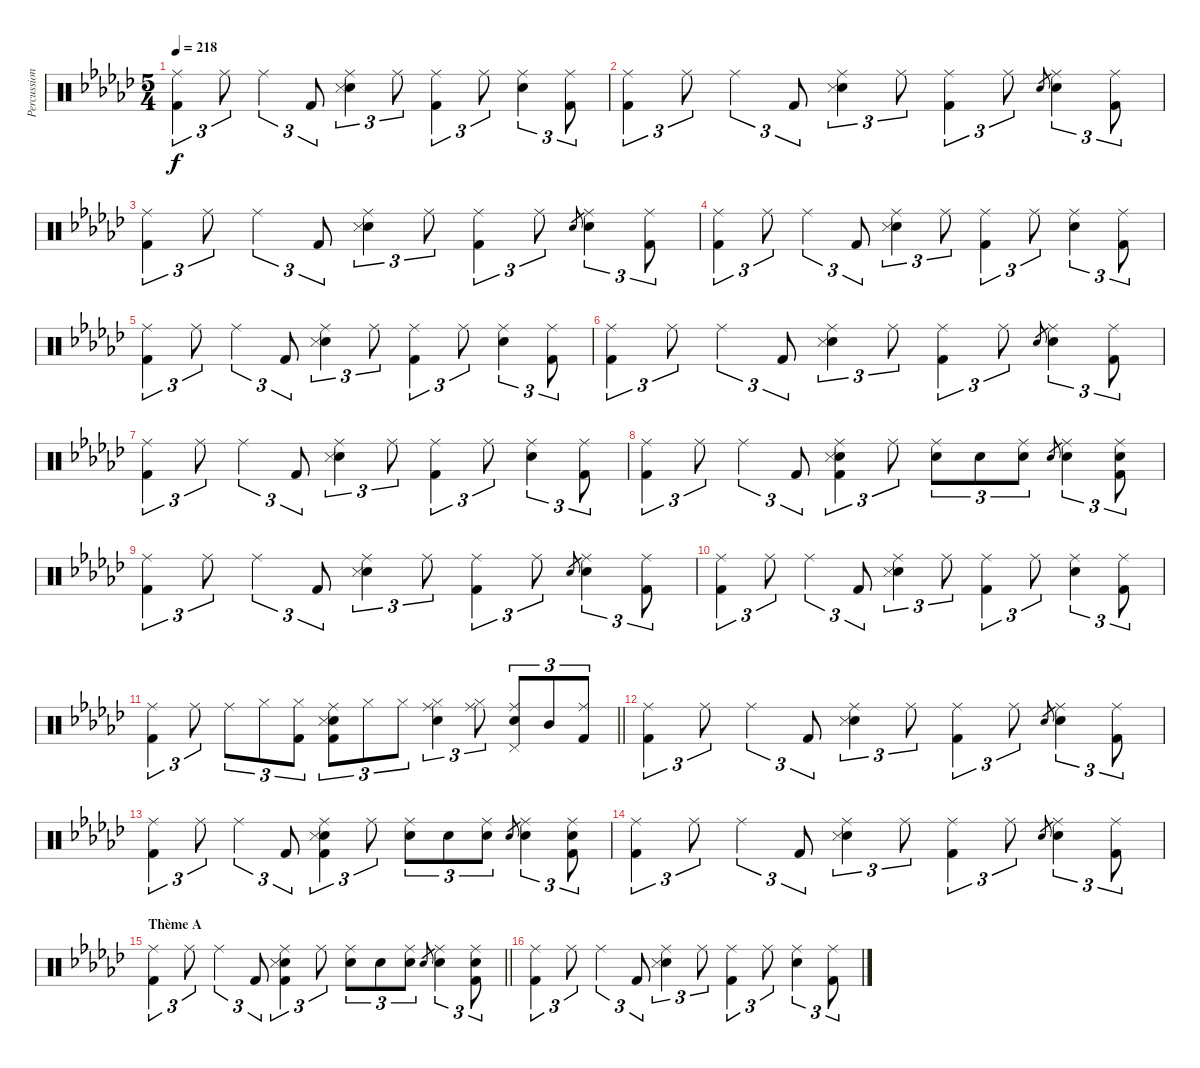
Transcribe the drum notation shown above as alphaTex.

\track ("Percussions" "Percussion") {instrument percussion}
\staff {score}
\articulation defaults
\ts (5 4)
\tempo 218
\clef neutral
\ks ebminor
("Ride (middle)" "Kick (hit) 2").4{tu (3 2) dy f} "Ride (middle)".8{tu (3 2)} "Ride (middle)".4{tu (3 2)} "Kick (hit) 2".8{tu (3 2)} ("Ride (middle)" "Snare (hit) 2" "Snare (side stick) 3").4{tu (3 2)} "Ride (middle)".8{tu (3 2)} ("Ride (middle)" "Kick (hit) 2").4{tu (3 2)} "Ride (middle)".8{tu (3 2)} ("Ride (middle)" "Snare (hit) 2").4{tu (3 2)} ("Ride (middle)" "Kick (hit) 2").8{tu (3 2)} |
("Ride (middle)" "Kick (hit) 2").4{tu (3 2)} "Ride (middle)".8{tu (3 2)} "Ride (middle)".4{tu (3 2)} "Kick (hit) 2".8{tu (3 2)} ("Ride (middle)" "Snare (hit) 2" "Snare (side stick) 3").4{tu (3 2)} "Ride (middle)".8{tu (3 2)} ("Ride (middle)" "Kick (hit) 2").4{tu (3 2)} "Ride (middle)".8{tu (3 2)} "Snare (hit) 2".8{gr} ("Ride (middle)" "Snare (hit) 2").4{tu (3 2)} ("Ride (middle)" "Kick (hit) 2").8{tu (3 2)} |
("Ride (middle)" "Kick (hit) 2").4{tu (3 2)} "Ride (middle)".8{tu (3 2)} "Ride (middle)".4{tu (3 2)} "Kick (hit) 2".8{tu (3 2)} ("Ride (middle)" "Snare (hit) 2" "Snare (side stick) 3").4{tu (3 2)} "Ride (middle)".8{tu (3 2)} ("Ride (middle)" "Kick (hit) 2").4{tu (3 2)} "Ride (middle)".8{tu (3 2)} "Snare (hit) 2".8{gr} ("Ride (middle)" "Snare (hit) 2").4{tu (3 2)} ("Ride (middle)" "Kick (hit) 2").8{tu (3 2)} |
("Ride (middle)" "Kick (hit) 2").4{tu (3 2)} "Ride (middle)".8{tu (3 2)} "Ride (middle)".4{tu (3 2)} "Kick (hit) 2".8{tu (3 2)} ("Ride (middle)" "Snare (hit) 2" "Snare (side stick) 3").4{tu (3 2)} "Ride (middle)".8{tu (3 2)} ("Ride (middle)" "Kick (hit) 2").4{tu (3 2)} "Ride (middle)".8{tu (3 2)} ("Ride (middle)" "Snare (hit) 2").4{tu (3 2)} ("Ride (middle)" "Kick (hit) 2").8{tu (3 2)} |
("Ride (middle)" "Kick (hit) 2").4{tu (3 2)} "Ride (middle)".8{tu (3 2)} "Ride (middle)".4{tu (3 2)} "Kick (hit) 2".8{tu (3 2)} ("Ride (middle)" "Snare (hit) 2" "Snare (side stick) 3").4{tu (3 2)} "Ride (middle)".8{tu (3 2)} ("Ride (middle)" "Kick (hit) 2").4{tu (3 2)} "Ride (middle)".8{tu (3 2)} ("Ride (middle)" "Snare (hit) 2").4{tu (3 2)} ("Ride (middle)" "Kick (hit) 2").8{tu (3 2)} |
("Ride (middle)" "Kick (hit) 2").4{tu (3 2)} "Ride (middle)".8{tu (3 2)} "Ride (middle)".4{tu (3 2)} "Kick (hit) 2".8{tu (3 2)} ("Ride (middle)" "Snare (hit) 2" "Snare (side stick) 3").4{tu (3 2)} "Ride (middle)".8{tu (3 2)} ("Ride (middle)" "Kick (hit) 2").4{tu (3 2)} "Ride (middle)".8{tu (3 2)} "Snare (hit) 2".8{gr} ("Ride (middle)" "Snare (hit) 2").4{tu (3 2)} ("Ride (middle)" "Kick (hit) 2").8{tu (3 2)} |
("Ride (middle)" "Kick (hit) 2").4{tu (3 2)} "Ride (middle)".8{tu (3 2)} "Ride (middle)".4{tu (3 2)} "Kick (hit) 2".8{tu (3 2)} ("Ride (middle)" "Snare (hit) 2" "Snare (side stick) 3").4{tu (3 2)} "Ride (middle)".8{tu (3 2)} ("Ride (middle)" "Kick (hit) 2").4{tu (3 2)} "Ride (middle)".8{tu (3 2)} ("Ride (middle)" "Snare (hit) 2").4{tu (3 2)} ("Ride (middle)" "Kick (hit) 2").8{tu (3 2)} |
("Ride (middle)" "Kick (hit) 2").4{tu (3 2)} "Ride (middle)".8{tu (3 2)} "Ride (middle)".4{tu (3 2)} "Kick (hit) 2".8{tu (3 2)} ("Ride (middle)" "Snare (hit) 2" "Snare (side stick) 3" "Kick (hit) 2").4{tu (3 2)} "Ride (middle)".8{tu (3 2)} ("Ride (middle)" "Snare (hit) 2").8{tu (3 2)} "Snare (hit) 2".8{tu (3 2)} ("Ride (middle)" "Snare (hit) 2").8{tu (3 2)} "Snare (hit) 2".8{gr} ("Ride (middle)" "Snare (hit) 2").4{tu (3 2)} ("Ride (middle)" "Snare (hit) 2" "Kick (hit) 2").8{tu (3 2)} |
("Ride (middle)" "Kick (hit) 2").4{tu (3 2)} "Ride (middle)".8{tu (3 2)} "Ride (middle)".4{tu (3 2)} "Kick (hit) 2".8{tu (3 2)} ("Ride (middle)" "Snare (hit) 2" "Snare (side stick) 3").4{tu (3 2)} "Ride (middle)".8{tu (3 2)} ("Ride (middle)" "Kick (hit) 2").4{tu (3 2)} "Ride (middle)".8{tu (3 2)} "Snare (hit) 2".8{gr} ("Ride (middle)" "Snare (hit) 2").4{tu (3 2)} ("Ride (middle)" "Kick (hit) 2").8{tu (3 2)} |
("Ride (middle)" "Kick (hit) 2").4{tu (3 2)} "Ride (middle)".8{tu (3 2)} "Ride (middle)".4{tu (3 2)} "Kick (hit) 2".8{tu (3 2)} ("Ride (middle)" "Snare (hit) 2" "Snare (side stick) 3").4{tu (3 2)} "Ride (middle)".8{tu (3 2)} ("Ride (middle)" "Kick (hit) 2").4{tu (3 2)} "Ride (middle)".8{tu (3 2)} ("Ride (middle)" "Snare (hit) 2").4{tu (3 2)} ("Ride (middle)" "Kick (hit) 2").8{tu (3 2)} |
\barLineRight lightlight
("Ride (middle)" "Kick (hit) 2").4{tu (3 2)} "Ride (middle)".8{tu (3 2)} "Ride (middle)".8{tu (3 2)} "Hi-Hat (closed)".8{tu (3 2)} ("Hi-Hat (closed)" "Kick (hit) 2").8{tu (3 2)} ("Ride (middle)" "Snare (hit) 2" "Snare (side stick) 3" "Kick (hit) 2").8{tu (3 2)} "Hi-Hat (closed)".8{tu (3 2)} "Hi-Hat (closed)".8{tu (3 2)} ("Ride (middle)" "Hi-Hat (closed)" "Snare (hit) 2").4{tu (3 2)} ("Ride (middle)" "Hi-Hat (closed)").8{tu (3 2)} ("Ride (middle)" "Pedal Hi-Hat (hit)" "Snare (hit) 2").8{tu (3 2)} "Mid Tom (hit)".8{tu (3 2)} ("Ride (middle)" "Kick (hit) 2").8{tu (3 2)} |
("Ride (middle)" "Kick (hit) 2").4{tu (3 2)} "Ride (middle)".8{tu (3 2)} "Ride (middle)".4{tu (3 2)} "Kick (hit) 2".8{tu (3 2)} ("Ride (middle)" "Snare (hit) 2" "Snare (side stick) 3").4{tu (3 2)} "Ride (middle)".8{tu (3 2)} ("Ride (middle)" "Kick (hit) 2").4{tu (3 2)} "Ride (middle)".8{tu (3 2)} "Snare (hit) 2".8{gr} ("Ride (middle)" "Snare (hit) 2").4{tu (3 2)} ("Ride (middle)" "Kick (hit) 2").8{tu (3 2)} |
("Ride (middle)" "Kick (hit) 2").4{tu (3 2)} "Ride (middle)".8{tu (3 2)} "Ride (middle)".4{tu (3 2)} "Kick (hit) 2".8{tu (3 2)} ("Ride (middle)" "Snare (hit) 2" "Snare (side stick) 3" "Kick (hit) 2").4{tu (3 2)} "Ride (middle)".8{tu (3 2)} ("Ride (middle)" "Snare (hit) 2").8{tu (3 2)} "Snare (hit) 2".8{tu (3 2)} ("Ride (middle)" "Snare (hit) 2").8{tu (3 2)} "Snare (hit) 2".8{gr} ("Ride (middle)" "Snare (hit) 2").4{tu (3 2)} ("Ride (middle)" "Snare (hit) 2" "Kick (hit) 2").8{tu (3 2)} |
("Ride (middle)" "Kick (hit) 2").4{tu (3 2)} "Ride (middle)".8{tu (3 2)} "Ride (middle)".4{tu (3 2)} "Kick (hit) 2".8{tu (3 2)} ("Ride (middle)" "Snare (hit) 2" "Snare (side stick) 3").4{tu (3 2)} "Ride (middle)".8{tu (3 2)} ("Ride (middle)" "Kick (hit) 2").4{tu (3 2)} "Ride (middle)".8{tu (3 2)} "Snare (hit) 2".8{gr} ("Ride (middle)" "Snare (hit) 2").4{tu (3 2)} ("Ride (middle)" "Kick (hit) 2").8{tu (3 2)} |
\section ("" "Thème A")
\barLineRight lightlight
("Ride (middle)" "Kick (hit) 2").4{tu (3 2)} "Ride (middle)".8{tu (3 2)} "Ride (middle)".4{tu (3 2)} "Kick (hit) 2".8{tu (3 2)} ("Ride (middle)" "Snare (hit) 2" "Snare (side stick) 3" "Kick (hit) 2").4{tu (3 2)} "Ride (middle)".8{tu (3 2)} ("Ride (middle)" "Snare (hit) 2").8{tu (3 2)} "Snare (hit) 2".8{tu (3 2)} ("Ride (middle)" "Snare (hit) 2").8{tu (3 2)} "Snare (hit) 2".8{gr} ("Ride (middle)" "Snare (hit) 2").4{tu (3 2)} ("Ride (middle)" "Snare (hit) 2" "Kick (hit) 2").8{tu (3 2)} |
("Ride (middle)" "Kick (hit) 2").4{tu (3 2)} "Ride (middle)".8{tu (3 2)} "Ride (middle)".4{tu (3 2)} "Kick (hit) 2".8{tu (3 2)} ("Ride (middle)" "Snare (hit) 2" "Snare (side stick) 3").4{tu (3 2)} "Ride (middle)".8{tu (3 2)} ("Ride (middle)" "Kick (hit) 2").4{tu (3 2)} "Ride (middle)".8{tu (3 2)} ("Ride (middle)" "Snare (hit) 2").4{tu (3 2)} ("Ride (middle)" "Kick (hit) 2").8{tu (3 2)}
